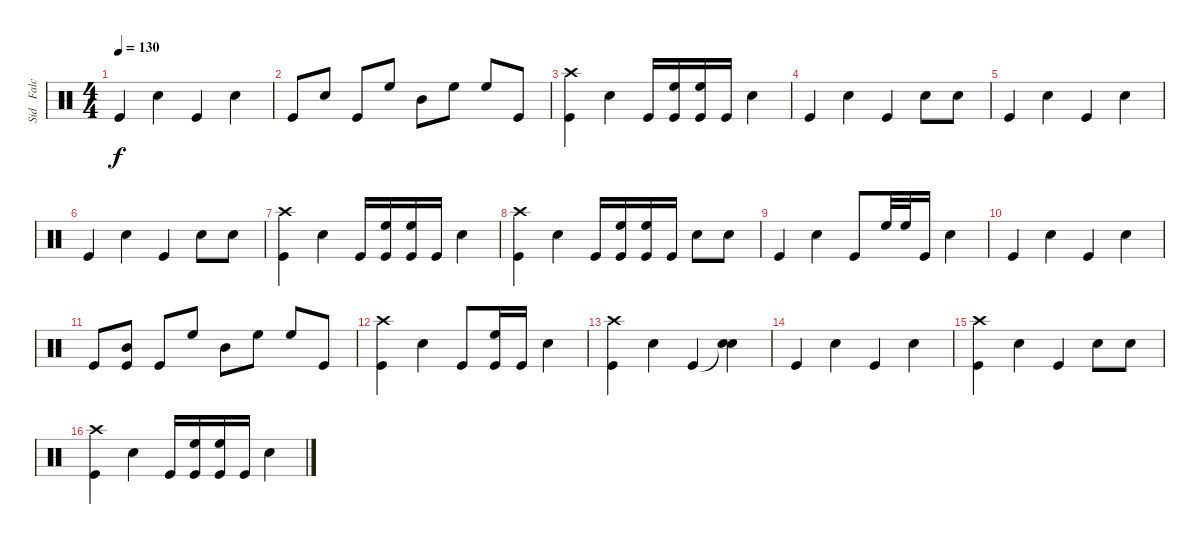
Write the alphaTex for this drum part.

\track ("Sid   Falck  - Drums" "Sid   Falc") {instrument percussion}
\staff {score}
\articulation defaults
\ts (4 4)
\tempo 130
\clef neutral
\ks c "Kick (hit)".4{dy f} "Electric Snare (hit)".4 "Kick (hit)".4 "Electric Snare (hit)".4
|
"Kick (hit)".8 "Electric Snare (hit)".8 "Kick (hit)".8 "High Floor Tom (hit)".8 "Mid Tom (hit)".8 "High Floor Tom (hit)".8 "High Floor Tom (hit)".8 "Kick (hit)".8 |
("Crash high (hit)" "Kick (hit)").4 "Electric Snare (hit)".4 "Kick (hit)".16 ("High Floor Tom (hit)" "Kick (hit)").16 ("High Floor Tom (hit)" "Kick (hit)").16 "Kick (hit)".16 "Electric Snare (hit)".4 |
"Kick (hit)".4 "Electric Snare (hit)".4 "Kick (hit)".4 "Electric Snare (hit)".8 "Electric Snare (hit)".8 |
"Kick (hit)".4 "Electric Snare (hit)".4 "Kick (hit)".4 "Electric Snare (hit)".4 |
"Kick (hit)".4 "Electric Snare (hit)".4 "Kick (hit)".4 "Electric Snare (hit)".8 "Electric Snare (hit)".8 |
("Crash high (hit)" "Kick (hit)").4 "Electric Snare (hit)".4 "Kick (hit)".16 ("High Floor Tom (hit)" "Kick (hit)").16 ("High Floor Tom (hit)" "Kick (hit)").16 "Kick (hit)".16 "Electric Snare (hit)".4 |
("Crash high (hit)" "Kick (hit)").4 "Electric Snare (hit)".4 "Kick (hit)".16 ("High Floor Tom (hit)" "Kick (hit)").16 ("High Floor Tom (hit)" "Kick (hit)").16 "Kick (hit)".16 "Electric Snare (hit)".8 "Electric Snare (hit)".8 |
"Kick (hit)".4 "Electric Snare (hit)".4 "Kick (hit)".8 "High Floor Tom (hit)".32 "High Floor Tom (hit)".32 "Kick (hit)".16 "Electric Snare (hit)".4 |
"Kick (hit)".4 "Electric Snare (hit)".4 "Kick (hit)".4 "Electric Snare (hit)".4 |
"Kick (hit)".8 ("Mid Tom (hit)" "Kick (hit)").8 "Kick (hit)".8 "High Floor Tom (hit)".8 "Mid Tom (hit)".8 "High Floor Tom (hit)".8 "High Floor Tom (hit)".8 "Kick (hit)".8 |
("Crash high (hit)" "Kick (hit)").4 "Electric Snare (hit)".4 "Kick (hit)".8 ("High Floor Tom (hit)" "Kick (hit)").16 "Kick (hit)".16 "Electric Snare (hit)".4 |
("Crash high (hit)" "Kick (hit)").4 "Electric Snare (hit)".4 "Kick (hit)".4 ("Snare (hit)"{t} "Electric Snare (hit)").4 |
"Kick (hit)".4 "Electric Snare (hit)".4 "Kick (hit)".4 "Electric Snare (hit)".4 |
("Crash high (hit)" "Kick (hit)").4 "Electric Snare (hit)".4 "Kick (hit)".4 "Electric Snare (hit)".8 "Electric Snare (hit)".8 |
("Crash high (hit)" "Kick (hit)").4 "Electric Snare (hit)".4 "Kick (hit)".16 ("High Floor Tom (hit)" "Kick (hit)").16 ("High Floor Tom (hit)" "Kick (hit)").16 "Kick (hit)".16 "Electric Snare (hit)".4
